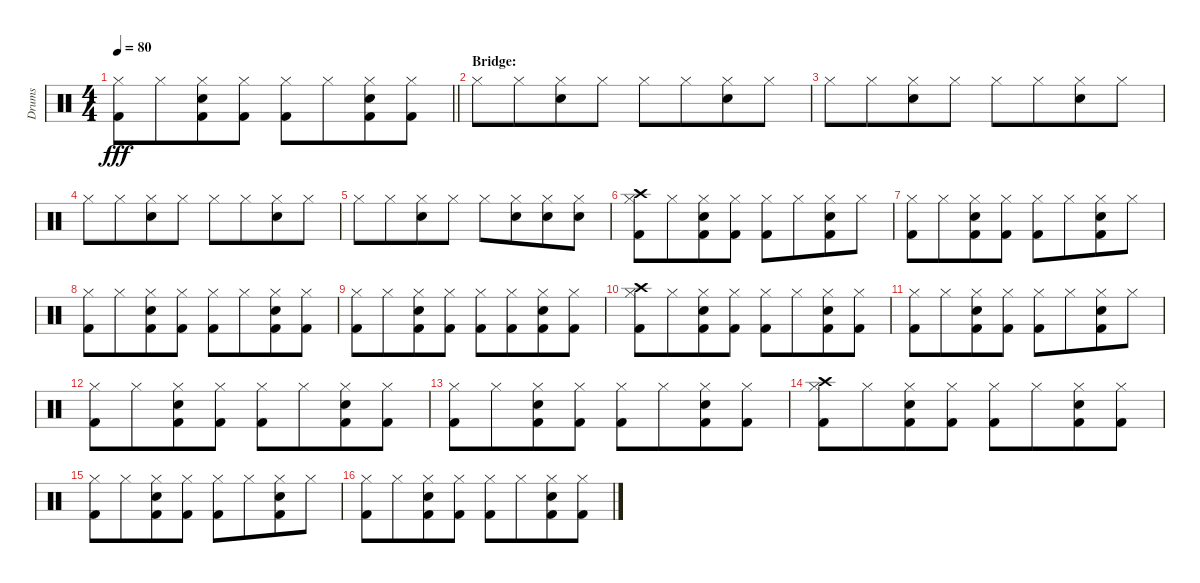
\track ("Drums" "Drums") {instrument percussion}
\staff {score}
\articulation defaults
\ts (4 4)
\tempo 80
\clef neutral
\barLineRight lightlight
\ks c
("Hi-Hat (closed)" "Kick (hit) 2").8{dy fff} "Hi-Hat (closed)".8{beam merge} ("Hi-Hat (closed)" "Snare (hit) 2" "Kick (hit) 2").8 ("Hi-Hat (closed)" "Kick (hit) 2").8 ("Hi-Hat (closed)" "Kick (hit) 2").8 "Hi-Hat (closed)".8{beam merge} ("Hi-Hat (closed)" "Snare (hit) 2" "Kick (hit) 2").8 ("Hi-Hat (closed)" "Kick (hit) 2").8 |
\section ("" "Bridge:")
"Hi-Hat (closed)".8 "Hi-Hat (closed)".8{beam merge} ("Hi-Hat (closed)" "Snare (hit) 2").8 "Hi-Hat (closed)".8 "Hi-Hat (closed)".8 "Hi-Hat (closed)".8{beam merge} ("Hi-Hat (closed)" "Snare (hit) 2").8 "Hi-Hat (closed)".8 |
"Hi-Hat (closed)".8 "Hi-Hat (closed)".8{beam merge} ("Hi-Hat (closed)" "Snare (hit) 2").8 "Hi-Hat (closed)".8 "Hi-Hat (closed)".8 "Hi-Hat (closed)".8{beam merge} ("Hi-Hat (closed)" "Snare (hit) 2").8 "Hi-Hat (closed)".8 |
"Hi-Hat (closed)".8 "Hi-Hat (closed)".8{beam merge} ("Hi-Hat (closed)" "Snare (hit) 2").8 "Hi-Hat (closed)".8 "Hi-Hat (closed)".8 "Hi-Hat (closed)".8{beam merge} ("Hi-Hat (closed)" "Snare (hit) 2").8 "Hi-Hat (closed)".8 |
"Hi-Hat (closed)".8 "Hi-Hat (closed)".8{beam merge} ("Hi-Hat (closed)" "Snare (hit) 2").8 "Hi-Hat (closed)".8 "Hi-Hat (closed)".8 ("Hi-Hat (closed)" "Snare (hit) 2").8{beam merge} ("Hi-Hat (closed)" "Snare (hit) 2").8 ("Hi-Hat (closed)" "Snare (hit) 2").8 |
("Hi-Hat (closed)" "Crash high (hit)" "Kick (hit) 2").8 "Hi-Hat (closed)".8{beam merge} ("Hi-Hat (closed)" "Snare (hit) 2" "Kick (hit) 2").8 ("Hi-Hat (closed)" "Kick (hit) 2").8 ("Hi-Hat (closed)" "Kick (hit) 2").8 "Hi-Hat (closed)".8{beam merge} ("Hi-Hat (closed)" "Snare (hit) 2" "Kick (hit) 2").8 "Hi-Hat (closed)".8 |
("Hi-Hat (closed)" "Kick (hit) 2").8 "Hi-Hat (closed)".8{beam merge} ("Hi-Hat (closed)" "Snare (hit) 2" "Kick (hit) 2").8 ("Hi-Hat (closed)" "Kick (hit) 2").8 ("Hi-Hat (closed)" "Kick (hit) 2").8 "Hi-Hat (closed)".8{beam merge} ("Hi-Hat (closed)" "Snare (hit) 2" "Kick (hit) 2").8 "Hi-Hat (closed)".8 |
("Hi-Hat (closed)" "Kick (hit) 2").8 "Hi-Hat (closed)".8{beam merge} ("Hi-Hat (closed)" "Snare (hit) 2" "Kick (hit) 2").8 ("Hi-Hat (closed)" "Kick (hit) 2").8 ("Hi-Hat (closed)" "Kick (hit) 2").8 "Hi-Hat (closed)".8{beam merge} ("Hi-Hat (closed)" "Snare (hit) 2" "Kick (hit) 2").8 ("Hi-Hat (closed)" "Kick (hit) 2").8 |
("Hi-Hat (closed)" "Kick (hit) 2").8 "Hi-Hat (closed)".8{beam merge} ("Hi-Hat (closed)" "Snare (hit) 2" "Kick (hit) 2").8 ("Hi-Hat (closed)" "Kick (hit) 2").8 ("Hi-Hat (closed)" "Kick (hit) 2").8 ("Hi-Hat (closed)" "Kick (hit) 2").8{beam merge} ("Hi-Hat (closed)" "Snare (hit) 2" "Kick (hit) 2").8 ("Hi-Hat (closed)" "Kick (hit) 2").8 |
("Hi-Hat (closed)" "Crash high (hit)" "Kick (hit) 2").8 "Hi-Hat (closed)".8{beam merge} ("Hi-Hat (closed)" "Snare (hit) 2" "Kick (hit) 2").8 ("Hi-Hat (closed)" "Kick (hit) 2").8 ("Hi-Hat (closed)" "Kick (hit) 2").8 "Hi-Hat (closed)".8{beam merge} ("Hi-Hat (closed)" "Snare (hit) 2" "Kick (hit) 2").8 ("Hi-Hat (closed)" "Kick (hit) 2").8 |
("Hi-Hat (closed)" "Kick (hit) 2").8 "Hi-Hat (closed)".8{beam merge} ("Hi-Hat (closed)" "Snare (hit) 2" "Kick (hit) 2").8 ("Hi-Hat (closed)" "Kick (hit) 2").8 ("Hi-Hat (closed)" "Kick (hit) 2").8 "Hi-Hat (closed)".8{beam merge} ("Hi-Hat (closed)" "Snare (hit) 2" "Kick (hit) 2").8 "Hi-Hat (closed)".8 |
("Hi-Hat (closed)" "Kick (hit) 2").8 "Hi-Hat (closed)".8{beam merge} ("Hi-Hat (closed)" "Snare (hit) 2" "Kick (hit) 2").8 ("Hi-Hat (closed)" "Kick (hit) 2").8 ("Hi-Hat (closed)" "Kick (hit) 2").8 "Hi-Hat (closed)".8{beam merge} ("Hi-Hat (closed)" "Snare (hit) 2" "Kick (hit) 2").8 ("Hi-Hat (closed)" "Kick (hit) 2").8 |
("Hi-Hat (closed)" "Kick (hit) 2").8 "Hi-Hat (closed)".8{beam merge} ("Hi-Hat (closed)" "Snare (hit) 2" "Kick (hit) 2").8 ("Hi-Hat (closed)" "Kick (hit) 2").8 ("Hi-Hat (closed)" "Kick (hit) 2").8 "Hi-Hat (closed)".8{beam merge} ("Hi-Hat (closed)" "Snare (hit) 2" "Kick (hit) 2").8 ("Hi-Hat (closed)" "Kick (hit) 2").8 |
("Hi-Hat (closed)" "Crash high (hit)" "Kick (hit) 2").8 "Hi-Hat (closed)".8{beam merge} ("Hi-Hat (closed)" "Snare (hit) 2" "Kick (hit) 2").8 ("Hi-Hat (closed)" "Kick (hit) 2").8 ("Hi-Hat (closed)" "Kick (hit) 2").8 "Hi-Hat (closed)".8{beam merge} ("Hi-Hat (closed)" "Snare (hit) 2" "Kick (hit) 2").8 ("Hi-Hat (closed)" "Kick (hit) 2").8 |
("Hi-Hat (closed)" "Kick (hit) 2").8 "Hi-Hat (closed)".8{beam merge} ("Hi-Hat (closed)" "Snare (hit) 2" "Kick (hit) 2").8 ("Hi-Hat (closed)" "Kick (hit) 2").8 ("Hi-Hat (closed)" "Kick (hit) 2").8 "Hi-Hat (closed)".8{beam merge} ("Hi-Hat (closed)" "Snare (hit) 2" "Kick (hit) 2").8 "Hi-Hat (closed)".8 |
("Hi-Hat (closed)" "Kick (hit) 2").8 "Hi-Hat (closed)".8{beam merge} ("Hi-Hat (closed)" "Snare (hit) 2" "Kick (hit) 2").8 ("Hi-Hat (closed)" "Kick (hit) 2").8 ("Hi-Hat (closed)" "Kick (hit) 2").8 "Hi-Hat (closed)".8{beam merge} ("Hi-Hat (closed)" "Snare (hit) 2" "Kick (hit) 2").8 ("Hi-Hat (closed)" "Kick (hit) 2").8
